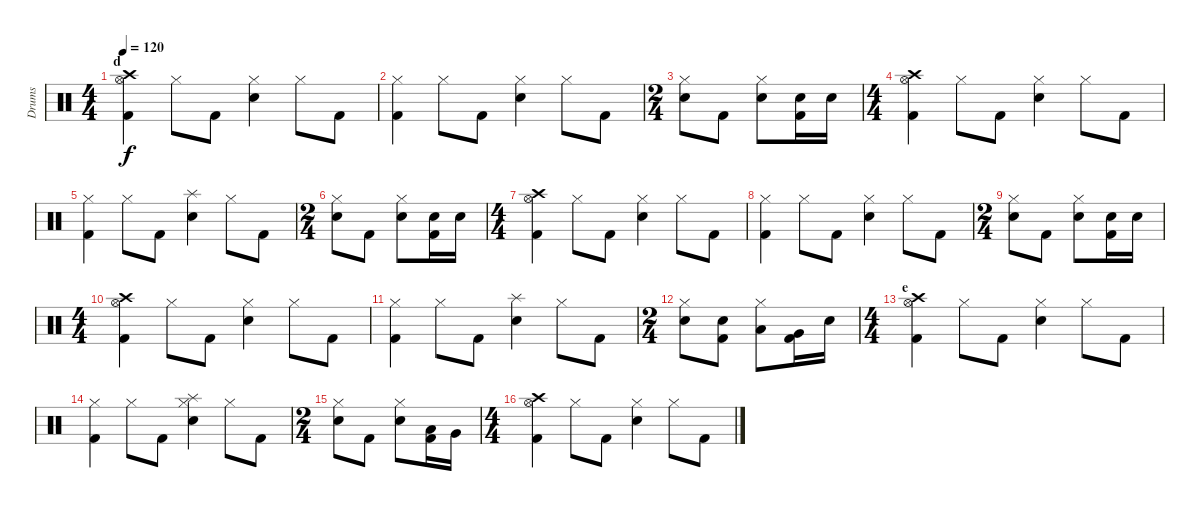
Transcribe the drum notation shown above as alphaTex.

\track ("Drums" "Drums") {instrument percussion}
\staff {score}
\articulation defaults
\ts (4 4)
\section ("" "d")
\tempo 120
\clef neutral
\ks c
("Hi-Hat (open)" "Crash high (hit)" "Kick (hit) 2").4{dy f} "Hi-Hat (closed)".8 "Kick (hit) 2".8 ("Hi-Hat (closed)" "Electric Snare (hit)").4 "Hi-Hat (closed)".8 "Kick (hit) 2".8 |
("Hi-Hat (closed)" "Kick (hit) 2").4 "Hi-Hat (closed)".8 "Kick (hit) 2".8 ("Hi-Hat (closed)" "Electric Snare (hit)").4 "Hi-Hat (closed)".8 "Kick (hit) 2".8 |
\ts (2 4)
("Hi-Hat (closed)" "Electric Snare (hit)").8 "Kick (hit) 2".8 ("Hi-Hat (closed)" "Electric Snare (hit)").8 ("Electric Snare (hit)" "Kick (hit) 2").16 "Electric Snare (hit)".16 |
\ts (4 4)
("Hi-Hat (open)" "Crash high (hit)" "Kick (hit) 2").4 "Hi-Hat (closed)".8 "Kick (hit) 2".8 ("Hi-Hat (closed)" "Electric Snare (hit)").4 "Hi-Hat (closed)".8 "Kick (hit) 2".8 |
("Hi-Hat (closed)" "Kick (hit) 2").4 "Hi-Hat (closed)".8 "Kick (hit) 2".8 ("Splash (hit)" "Electric Snare (hit)").4 "Hi-Hat (closed)".8 "Kick (hit) 2".8 |
\ts (2 4)
("Hi-Hat (closed)" "Electric Snare (hit)").8 "Kick (hit) 2".8 ("Hi-Hat (closed)" "Electric Snare (hit)").8 ("Electric Snare (hit)" "Kick (hit) 2").16 "Electric Snare (hit)".16 |
\ts (4 4)
("Hi-Hat (open)" "Crash high (hit)" "Kick (hit) 2").4 "Hi-Hat (closed)".8 "Kick (hit) 2".8 ("Hi-Hat (closed)" "Electric Snare (hit)").4 "Hi-Hat (closed)".8 "Kick (hit) 2".8 |
("Hi-Hat (closed)" "Kick (hit) 2").4 "Hi-Hat (closed)".8 "Kick (hit) 2".8 ("Hi-Hat (closed)" "Electric Snare (hit)").4 "Hi-Hat (closed)".8 "Kick (hit) 2".8 |
\ts (2 4)
("Hi-Hat (closed)" "Electric Snare (hit)").8 "Kick (hit) 2".8 ("Hi-Hat (closed)" "Electric Snare (hit)").8 ("Electric Snare (hit)" "Kick (hit) 2").16 "Electric Snare (hit)".16 |
\ts (4 4)
("Hi-Hat (open)" "Crash high (hit)" "Kick (hit) 2").4 "Hi-Hat (closed)".8 "Kick (hit) 2".8 ("Hi-Hat (closed)" "Electric Snare (hit)").4 "Hi-Hat (closed)".8 "Kick (hit) 2".8 |
("Hi-Hat (closed)" "Kick (hit) 2").4 "Hi-Hat (closed)".8 "Kick (hit) 2".8 ("Splash (hit)" "Electric Snare (hit)").4 "Hi-Hat (closed)".8 "Kick (hit) 2".8 |
\ts (2 4)
("Hi-Hat (closed)" "Electric Snare (hit)").8 ("Electric Snare (hit)" "Kick (hit) 2").8 ("Hi-Hat (closed)" "Low Tom (hit)").8 ("Very Low Tom (hit)" "Kick (hit) 2").16 "Electric Snare (hit)".16 |
\ts (4 4)
\section ("" "e")
("Hi-Hat (open)" "Crash high (hit)" "Kick (hit) 2").4 "Hi-Hat (closed)".8 "Kick (hit) 2".8 ("Hi-Hat (closed)" "Electric Snare (hit)").4 "Hi-Hat (closed)".8 "Kick (hit) 2".8 |
("Hi-Hat (closed)" "Kick (hit) 2").4 "Hi-Hat (closed)".8 "Kick (hit) 2".8 ("Hi-Hat (closed)" "Splash (hit)" "Electric Snare (hit)").4 "Hi-Hat (closed)".8 "Kick (hit) 2".8 |
\ts (2 4)
("Hi-Hat (closed)" "Electric Snare (hit)").8 "Kick (hit) 2".8 ("Hi-Hat (closed)" "Electric Snare (hit)").8 ("Low Tom (hit)" "Kick (hit) 2").16 "Very Low Tom (hit)".16 |
\ts (4 4)
("Hi-Hat (open)" "Crash high (hit)" "Kick (hit) 2").4 "Hi-Hat (closed)".8 "Kick (hit) 2".8 ("Hi-Hat (closed)" "Electric Snare (hit)").4 "Hi-Hat (closed)".8 "Kick (hit) 2".8
